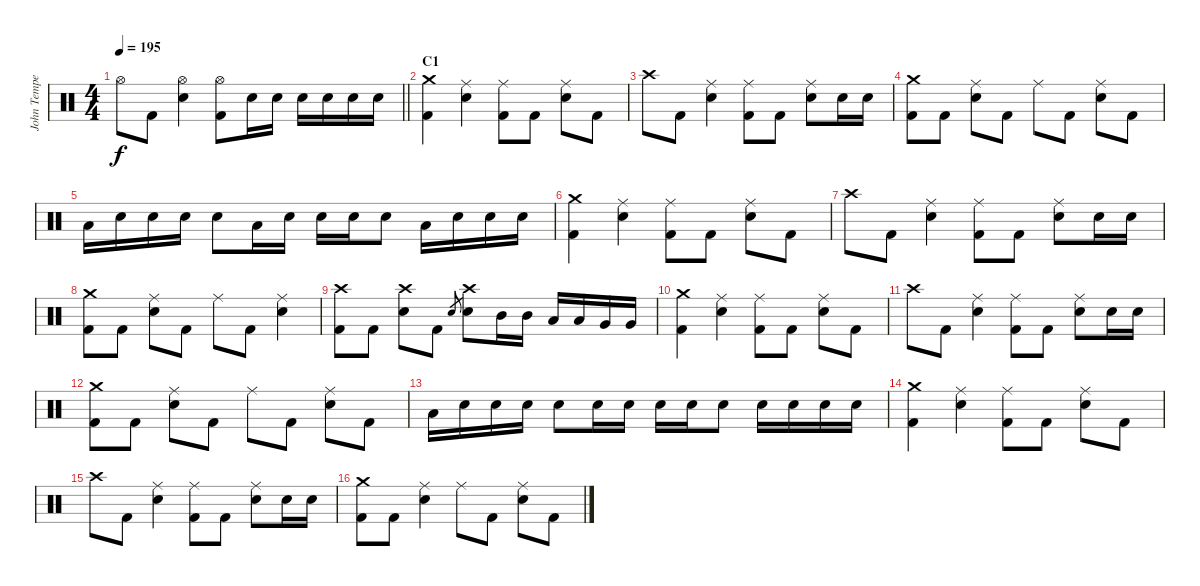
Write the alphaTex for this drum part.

\track ("John Tempesta" "John Tempe") {instrument percussion}
\staff {score}
\articulation defaults
\ts (4 4)
\tempo 195
\clef neutral
\barLineRight lightlight
\ks c "Hi-Hat (open)".8{dy f} "Kick (hit) 2".8
("Hi-Hat (open)" "Electric Snare (hit)").4 ("Hi-Hat (open)" "Kick (hit) 2").8 "Electric Snare (hit)".16 "Electric Snare (hit)".16 "Electric Snare (hit)".16 "Electric Snare (hit)".16 "Electric Snare (hit)".16 "Electric Snare (hit)".16 |
\section ("" "C1")
("Crash medium (hit)" "Kick (hit) 2").4 ("Ride (middle)" "Electric Snare (hit)").4 ("Ride (middle)" "Kick (hit) 2").8 "Kick (hit) 2".8 ("Ride (middle)" "Electric Snare (hit)").8 "Kick (hit) 2".8 |
"Crash high (hit)".8 "Kick (hit) 2".8 ("Ride (middle)" "Electric Snare (hit)").4 ("Ride (middle)" "Kick (hit) 2").8 "Kick (hit) 2".8 ("Ride (middle)" "Electric Snare (hit)").8 "Electric Snare (hit)".16 "Electric Snare (hit)".16 |
("Crash medium (hit)" "Kick (hit) 2").8 "Kick (hit) 2".8 ("Ride (middle)" "Electric Snare (hit)").8 "Kick (hit) 2".8 "Ride (middle)".8 "Kick (hit) 2".8 ("Ride (middle)" "Electric Snare (hit)").8 "Kick (hit) 2".8 |
"Low Floor Tom (hit)".16 "Electric Snare (hit)".16 "Electric Snare (hit)".16 "Electric Snare (hit)".16 "Electric Snare (hit)".8 "Low Floor Tom (hit)".16 "Electric Snare (hit)".16 "Electric Snare (hit)".16 "Electric Snare (hit)".16 "Electric Snare (hit)".8 "Low Floor Tom (hit)".16 "Electric Snare (hit)".16 "Electric Snare (hit)".16 "Electric Snare (hit)".16 |
("Crash medium (hit)" "Kick (hit) 2").4 ("Ride (middle)" "Electric Snare (hit)").4 ("Ride (middle)" "Kick (hit) 2").8 "Kick (hit) 2".8 ("Ride (middle)" "Electric Snare (hit)").8 "Kick (hit) 2".8 |
"Crash high (hit)".8 "Kick (hit) 2".8 ("Ride (middle)" "Electric Snare (hit)").4 ("Ride (middle)" "Kick (hit) 2").8 "Kick (hit) 2".8 ("Ride (middle)" "Electric Snare (hit)").8 "Electric Snare (hit)".16 "Electric Snare (hit)".16 |
("Crash medium (hit)" "Kick (hit) 2").8 "Kick (hit) 2".8 ("Ride (middle)" "Electric Snare (hit)").8 "Kick (hit) 2".8 "Ride (middle)".8 "Kick (hit) 2".8 ("Ride (middle)" "Electric Snare (hit)").4 |
("Crash high (hit)" "Kick (hit) 2").8 "Kick (hit) 2".8 ("Crash high (hit)" "Electric Snare (hit)").8 "Kick (hit) 2".8 "Electric Snare (hit)".8{gr} ("Crash high (hit)" "Electric Snare (hit)").8 "Mid Tom (hit)".16 "Mid Tom (hit)".16 "Low Tom (hit)".16 "Low Tom (hit)".16 "Very Low Tom (hit)".16 "Very Low Tom (hit)".16 |
("Crash medium (hit)" "Kick (hit) 2").4 ("Ride (middle)" "Electric Snare (hit)").4 ("Ride (middle)" "Kick (hit) 2").8 "Kick (hit) 2".8 ("Ride (middle)" "Electric Snare (hit)").8 "Kick (hit) 2".8 |
"Crash high (hit)".8 "Kick (hit) 2".8 ("Ride (middle)" "Electric Snare (hit)").4 ("Ride (middle)" "Kick (hit) 2").8 "Kick (hit) 2".8 ("Ride (middle)" "Electric Snare (hit)").8 "Electric Snare (hit)".16 "Electric Snare (hit)".16 |
("Crash medium (hit)" "Kick (hit) 2").8 "Kick (hit) 2".8 ("Ride (middle)" "Electric Snare (hit)").8 "Kick (hit) 2".8 "Ride (middle)".8 "Kick (hit) 2".8 ("Ride (middle)" "Electric Snare (hit)").8 "Kick (hit) 2".8 |
"Low Floor Tom (hit)".16 "Electric Snare (hit)".16 "Electric Snare (hit)".16 "Electric Snare (hit)".16 "Electric Snare (hit)".8 "Electric Snare (hit)".16 "Electric Snare (hit)".16 "Electric Snare (hit)".16 "Electric Snare (hit)".16 "Electric Snare (hit)".8 "Electric Snare (hit)".16 "Electric Snare (hit)".16 "Electric Snare (hit)".16 "Electric Snare (hit)".16 |
("Crash medium (hit)" "Kick (hit) 2").4 ("Ride (middle)" "Electric Snare (hit)").4 ("Ride (middle)" "Kick (hit) 2").8 "Kick (hit) 2".8 ("Ride (middle)" "Electric Snare (hit)").8 "Kick (hit) 2".8 |
"Crash high (hit)".8 "Kick (hit) 2".8 ("Ride (middle)" "Electric Snare (hit)").4 ("Ride (middle)" "Kick (hit) 2").8 "Kick (hit) 2".8 ("Ride (middle)" "Electric Snare (hit)").8 "Electric Snare (hit)".16 "Electric Snare (hit)".16 |
("Crash medium (hit)" "Kick (hit) 2").8 "Kick (hit) 2".8 ("Ride (middle)" "Electric Snare (hit)").4 "Ride (middle)".8 "Kick (hit) 2".8 ("Ride (middle)" "Electric Snare (hit)").8 "Kick (hit) 2".8
